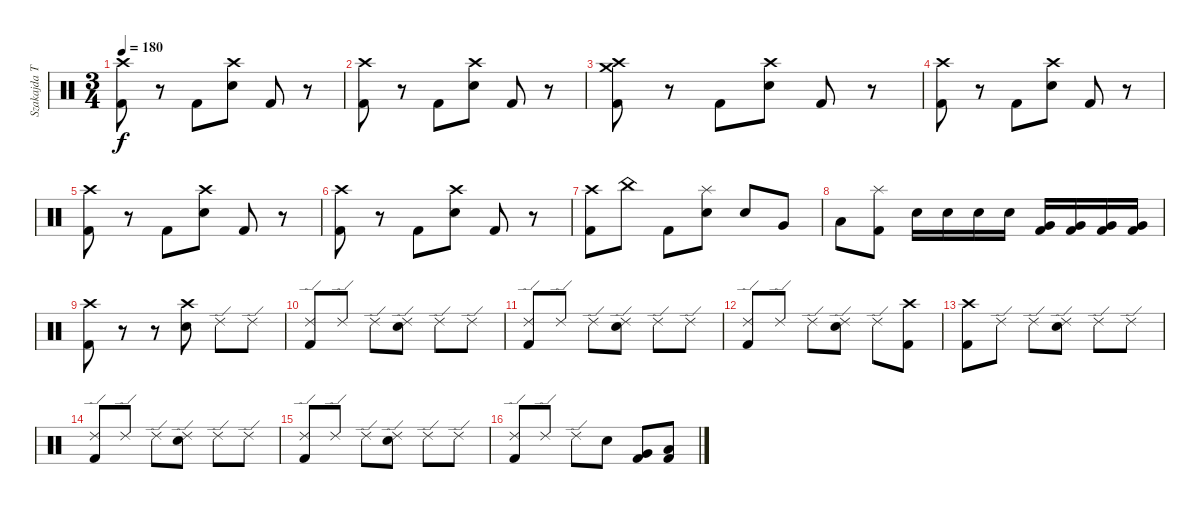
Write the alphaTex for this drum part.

\track ("Szakajda Tibi" "Szakajda T") {instrument percussion}
\staff {score}
\articulation defaults
\ts (3 4)
\tempo 180
\clef neutral
\ks c
("Crash high (hit)" "Kick (hit) 2").8{dy f} r.8 "Kick (hit) 2".8 ("Crash high (hit)" "Electric Snare (hit)").8 "Kick (hit) 2".8 r.8 |
("Crash high (hit)" "Kick (hit) 2").8 r.8 "Kick (hit) 2".8 ("Crash high (hit)" "Electric Snare (hit)").8 "Kick (hit) 2".8 r.8 |
("Crash high (hit)" "Crash medium (hit)" "Kick (hit) 2").8 r.8 "Kick (hit) 2".8 ("Crash high (hit)" "Electric Snare (hit)").8 "Kick (hit) 2".8 r.8 |
("Crash high (hit)" "Kick (hit) 2").8 r.8 "Kick (hit) 2".8 ("Crash high (hit)" "Electric Snare (hit)").8 "Kick (hit) 2".8 r.8 |
("Crash high (hit)" "Kick (hit) 2").8 r.8 "Kick (hit) 2".8 ("Crash high (hit)" "Electric Snare (hit)").8 "Kick (hit) 2".8 r.8 |
("Crash high (hit)" "Kick (hit) 2").8 r.8 "Kick (hit) 2".8 ("Crash high (hit)" "Electric Snare (hit)").8 "Kick (hit) 2".8 r.8 |
("Crash high (hit)" "Kick (hit) 2").8 "China (hit)".8 "Kick (hit) 2".8 ("Splash (hit)" "Electric Snare (hit)").8 "Electric Snare (hit)".8 "Very Low Tom (hit)".8 |
"Low Tom (hit)".8 ("Splash (hit)" "Kick (hit) 2").8 "Electric Snare (hit)".16 "Electric Snare (hit)".16 "Electric Snare (hit)".16 "Electric Snare (hit)".16 ("Very Low Tom (hit)" "Kick (hit) 2").16 ("Very Low Tom (hit)" "Kick (hit) 2").16 ("Very Low Tom (hit)" "Kick (hit) 2").16 ("Very Low Tom (hit)" "Kick (hit) 2").16 |
("Crash high (hit)" "Kick (hit) 2").8 r.8 r.8 ("Crash high (hit)" "Electric Snare (hit)").8 "Ride (edge) 2".8 "Ride (edge) 2".8 |
("Ride (edge) 2" "Kick (hit) 2").8 "Ride (edge) 2".8 "Ride (edge) 2".8 ("Ride (edge) 2" "Electric Snare (hit)").8 "Ride (edge) 2".8 "Ride (edge) 2".8 |
("Ride (edge) 2" "Kick (hit) 2").8 "Ride (edge) 2".8 "Ride (edge) 2".8 ("Ride (edge) 2" "Electric Snare (hit)").8 "Ride (edge) 2".8 "Ride (edge) 2".8 |
("Ride (edge) 2" "Kick (hit) 2").8 "Ride (edge) 2".8 "Ride (edge) 2".8 ("Ride (edge) 2" "Electric Snare (hit)").8 "Ride (edge) 2".8 ("Crash high (hit)" "Kick (hit) 2").8 |
("Crash high (hit)" "Kick (hit) 2").8 "Ride (edge) 2".8 "Ride (edge) 2".8 ("Ride (edge) 2" "Electric Snare (hit)").8 "Ride (edge) 2".8 "Ride (edge) 2".8 |
("Ride (edge) 2" "Kick (hit) 2").8 "Ride (edge) 2".8 "Ride (edge) 2".8 ("Ride (edge) 2" "Electric Snare (hit)").8 "Ride (edge) 2".8 "Ride (edge) 2".8 |
("Ride (edge) 2" "Kick (hit) 2").8 "Ride (edge) 2".8 "Ride (edge) 2".8 ("Ride (edge) 2" "Electric Snare (hit)").8 "Ride (edge) 2".8 "Ride (edge) 2".8 |
("Ride (edge) 2" "Kick (hit) 2").8 "Ride (edge) 2".8 "Ride (edge) 2".8 "Electric Snare (hit)".8 ("Very Low Tom (hit)" "Kick (hit) 2").8 ("Low Floor Tom (hit)" "Kick (hit) 2").8
